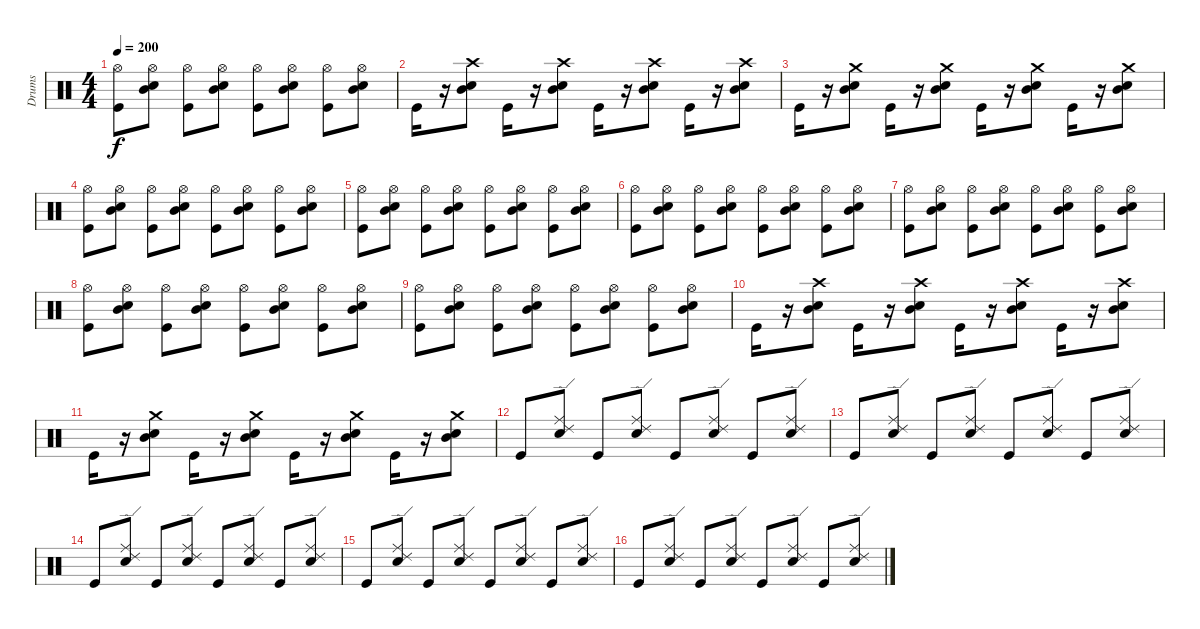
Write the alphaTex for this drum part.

\track ("Drums" "Drums") {instrument percussion}
\staff {score}
\articulation defaults
\ts (4 4)
\tempo 200
\clef neutral
\ks c
("Hi-Hat (open)" "Kick (hit)").8{dy f} ("Hi-Hat (open)" "Electric Snare (hit)" "Mid Tom (hit)").8 ("Hi-Hat (open)" "Kick (hit)").8 ("Hi-Hat (open)" "Electric Snare (hit)" "Mid Tom (hit)").8 ("Kick (hit)" "Hi-Hat (open)").8 ("Electric Snare (hit)" "Hi-Hat (open)" "Mid Tom (hit)").8 ("Hi-Hat (open)" "Kick (hit)").8 ("Electric Snare (hit)" "Hi-Hat (open)" "Mid Tom (hit)").8 |
"Kick (hit)".16 r.16 ("Electric Snare (hit)" "Crash high (hit)" "Mid Tom (hit)").8 "Kick (hit)".16 r.16 ("Crash high (hit)" "Electric Snare (hit)" "Mid Tom (hit)").8 "Kick (hit)".16 r.16 ("Crash high (hit)" "Electric Snare (hit)" "Mid Tom (hit)").8 "Kick (hit)".16 r.16 ("Mid Tom (hit)" "Electric Snare (hit)" "Crash high (hit)").8 |
"Kick (hit)".16 r.16 ("Crash medium (hit)" "Electric Snare (hit)" "Mid Tom (hit)").8 "Kick (hit)".16 r.16 ("Crash medium (hit)" "Mid Tom (hit)" "Electric Snare (hit)").8 "Kick (hit)".16 r.16 ("Crash medium (hit)" "Electric Snare (hit)" "Mid Tom (hit)").8 "Kick (hit)".16 r.16 ("Mid Tom (hit)" "Crash medium (hit)" "Electric Snare (hit)").8 |
("Kick (hit)" "Hi-Hat (open)").8 ("Hi-Hat (open)" "Electric Snare (hit)" "Mid Tom (hit)").8 ("Kick (hit)" "Hi-Hat (open)").8 ("Hi-Hat (open)" "Mid Tom (hit)" "Electric Snare (hit)").8 ("Hi-Hat (open)" "Kick (hit)").8 ("Hi-Hat (open)" "Electric Snare (hit)" "Mid Tom (hit)").8 ("Hi-Hat (open)" "Kick (hit)").8 ("Mid Tom (hit)" "Hi-Hat (open)" "Electric Snare (hit)").8 |
("Kick (hit)" "Hi-Hat (open)").8 ("Hi-Hat (open)" "Electric Snare (hit)" "Mid Tom (hit)").8 ("Kick (hit)" "Hi-Hat (open)").8 ("Hi-Hat (open)" "Mid Tom (hit)" "Electric Snare (hit)").8 ("Hi-Hat (open)" "Kick (hit)").8 ("Electric Snare (hit)" "Hi-Hat (open)" "Mid Tom (hit)").8 ("Hi-Hat (open)" "Kick (hit)").8 ("Mid Tom (hit)" "Electric Snare (hit)" "Hi-Hat (open)").8 |
("Kick (hit)" "Hi-Hat (open)").8 ("Hi-Hat (open)" "Electric Snare (hit)" "Mid Tom (hit)").8 ("Hi-Hat (open)" "Kick (hit)").8 ("Hi-Hat (open)" "Mid Tom (hit)" "Electric Snare (hit)").8 ("Kick (hit)" "Hi-Hat (open)").8 ("Hi-Hat (open)" "Electric Snare (hit)" "Mid Tom (hit)").8 ("Kick (hit)" "Hi-Hat (open)").8 ("Mid Tom (hit)" "Hi-Hat (open)" "Electric Snare (hit)").8 |
("Hi-Hat (open)" "Kick (hit)").8 ("Hi-Hat (open)" "Electric Snare (hit)" "Mid Tom (hit)").8 ("Hi-Hat (open)" "Kick (hit)").8 ("Hi-Hat (open)" "Mid Tom (hit)" "Electric Snare (hit)").8 ("Kick (hit)" "Hi-Hat (open)").8 ("Electric Snare (hit)" "Hi-Hat (open)" "Mid Tom (hit)").8 ("Kick (hit)" "Hi-Hat (open)").8 ("Mid Tom (hit)" "Hi-Hat (open)" "Electric Snare (hit)").8 |
("Kick (hit)" "Hi-Hat (open)").8 ("Hi-Hat (open)" "Electric Snare (hit)" "Mid Tom (hit)").8 ("Kick (hit)" "Hi-Hat (open)").8 ("Hi-Hat (open)" "Mid Tom (hit)" "Electric Snare (hit)").8 ("Hi-Hat (open)" "Kick (hit)").8 ("Hi-Hat (open)" "Mid Tom (hit)" "Electric Snare (hit)").8 ("Kick (hit)" "Hi-Hat (open)").8 ("Hi-Hat (open)" "Electric Snare (hit)" "Mid Tom (hit)").8 |
("Kick (hit)" "Hi-Hat (open)").8 ("Electric Snare (hit)" "Hi-Hat (open)" "Mid Tom (hit)").8 ("Kick (hit)" "Hi-Hat (open)").8 ("Hi-Hat (open)" "Mid Tom (hit)" "Electric Snare (hit)").8 ("Hi-Hat (open)" "Kick (hit)").8 ("Hi-Hat (open)" "Electric Snare (hit)" "Mid Tom (hit)").8 ("Kick (hit)" "Hi-Hat (open)").8 ("Hi-Hat (open)" "Mid Tom (hit)" "Electric Snare (hit)").8 |
"Kick (hit)".16 r.16 ("Crash high (hit)" "Electric Snare (hit)" "Mid Tom (hit)").8 "Kick (hit)".16 r.16 ("Electric Snare (hit)" "Crash high (hit)" "Mid Tom (hit)").8 "Kick (hit)".16 r.16 ("Electric Snare (hit)" "Crash high (hit)" "Mid Tom (hit)").8 "Kick (hit)".16 r.16 ("Crash high (hit)" "Mid Tom (hit)" "Electric Snare (hit)").8 |
"Kick (hit)".16 r.16 ("Crash medium (hit)" "Electric Snare (hit)" "Mid Tom (hit)").8 "Kick (hit)".16 r.16 ("Electric Snare (hit)" "Crash medium (hit)" "Mid Tom (hit)").8 "Kick (hit)".16 r.16 ("Crash medium (hit)" "Mid Tom (hit)" "Electric Snare (hit)").8 "Kick (hit)".16 r.16 ("Electric Snare (hit)" "Crash medium (hit)" "Mid Tom (hit)").8 |
"Kick (hit)".8 ("Electric Snare (hit)" "Ride (middle)" "Ride (edge) 2").8 "Kick (hit)".8 ("Electric Snare (hit)" "Ride (edge) 2" "Ride (middle)").8 "Kick (hit)".8 ("Electric Snare (hit)" "Ride (edge) 2" "Ride (middle)").8 "Kick (hit)".8 ("Electric Snare (hit)" "Ride (edge) 2" "Ride (middle)").8 |
"Kick (hit)".8 ("Electric Snare (hit)" "Ride (middle)" "Ride (edge) 2").8 "Kick (hit)".8 ("Electric Snare (hit)" "Ride (edge) 2" "Ride (middle)").8 "Kick (hit)".8 ("Electric Snare (hit)" "Ride (edge) 2" "Ride (middle)").8 "Kick (hit)".8 ("Electric Snare (hit)" "Ride (edge) 2" "Ride (middle)").8 |
"Kick (hit)".8 ("Electric Snare (hit)" "Ride (middle)" "Ride (edge) 2").8 "Kick (hit)".8 ("Electric Snare (hit)" "Ride (edge) 2" "Ride (middle)").8 "Kick (hit)".8 ("Electric Snare (hit)" "Ride (edge) 2" "Ride (middle)").8 "Kick (hit)".8 ("Electric Snare (hit)" "Ride (edge) 2" "Ride (middle)").8 |
"Kick (hit)".8 ("Electric Snare (hit)" "Ride (middle)" "Ride (edge) 2").8 "Kick (hit)".8 ("Electric Snare (hit)" "Ride (edge) 2" "Ride (middle)").8 "Kick (hit)".8 ("Electric Snare (hit)" "Ride (edge) 2" "Ride (middle)").8 "Kick (hit)".8 ("Electric Snare (hit)" "Ride (edge) 2" "Ride (middle)").8 |
"Kick (hit)".8 ("Electric Snare (hit)" "Ride (middle)" "Ride (edge) 2").8 "Kick (hit)".8 ("Electric Snare (hit)" "Ride (edge) 2" "Ride (middle)").8 "Kick (hit)".8 ("Electric Snare (hit)" "Ride (edge) 2" "Ride (middle)").8 "Kick (hit)".8 ("Electric Snare (hit)" "Ride (edge) 2" "Ride (middle)").8
